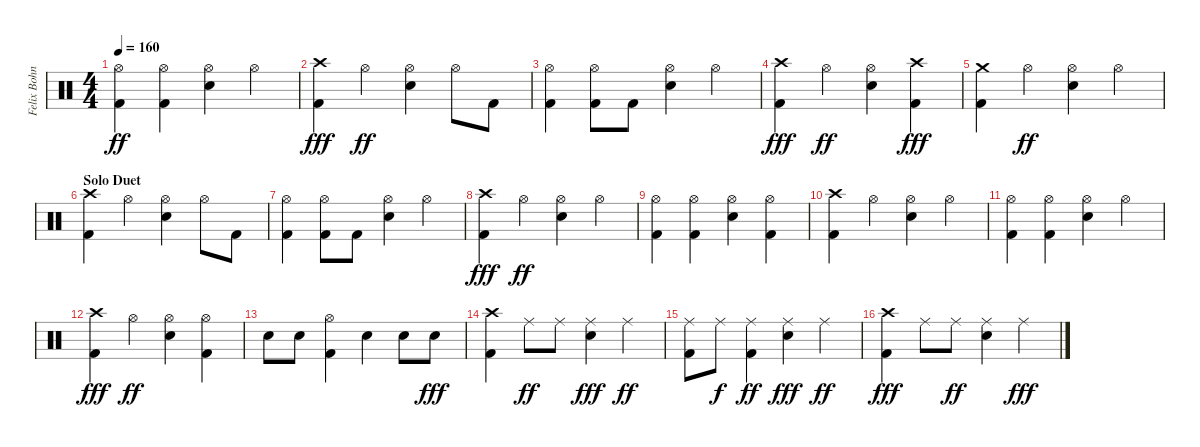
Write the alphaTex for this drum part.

\track ("Felix Bohnke" "Felix Bohn") {instrument percussion}
\staff {score}
\articulation defaults
\ts (4 4)
\tempo 160
\clef neutral
\ks c
("Kick (hit) 2" "Hi-Hat (open)").4{dy ff} ("Kick (hit) 2" "Hi-Hat (open)").4 ("Snare (hit) 2" "Hi-Hat (open)").4 "Hi-Hat (open)".4 |
("Kick (hit) 2" "Crash high (hit)").4{dy fff} "Hi-Hat (open)".4{dy ff} ("Snare (hit) 2" "Hi-Hat (open)").4 "Hi-Hat (open)".8 "Kick (hit) 2".8 |
("Kick (hit) 2" "Hi-Hat (open)").4 ("Kick (hit) 2" "Hi-Hat (open)").8 "Kick (hit) 2".8 ("Snare (hit) 2" "Hi-Hat (open)").4 "Hi-Hat (open)".4 |
("Kick (hit) 2" "Crash high (hit)").4{dy fff} "Hi-Hat (open)".4{dy ff} ("Snare (hit) 2" "Hi-Hat (open)").4 ("Kick (hit) 2" "Crash high (hit)").4{dy fff} |
("Kick (hit) 2" "Crash medium (hit)").4 "Hi-Hat (open)".4{dy ff} ("Snare (hit) 2" "Hi-Hat (open)").4 "Hi-Hat (open)".4 |
\section ("" "Solo Duet")
("Kick (hit) 2" "Crash high (hit)").4 "Hi-Hat (open)".4 ("Snare (hit) 2" "Hi-Hat (open)").4 "Hi-Hat (open)".8 "Kick (hit) 2".8 |
("Kick (hit) 2" "Hi-Hat (open)").4 ("Kick (hit) 2" "Hi-Hat (open)").8 "Kick (hit) 2".8 ("Snare (hit) 2" "Hi-Hat (open)").4 "Hi-Hat (open)".4 |
("Kick (hit) 2" "Crash high (hit)").4{dy fff} "Hi-Hat (open)".4{dy ff} ("Snare (hit) 2" "Hi-Hat (open)").4 "Hi-Hat (open)".4 |
("Kick (hit) 2" "Hi-Hat (open)").4 ("Kick (hit) 2" "Hi-Hat (open)").4 ("Snare (hit) 2" "Hi-Hat (open)").4 ("Kick (hit) 2" "Hi-Hat (open)").4 |
("Kick (hit) 2" "Crash high (hit)").4 "Hi-Hat (open)".4 ("Snare (hit) 2" "Hi-Hat (open)").4 "Hi-Hat (open)".4 |
("Kick (hit) 2" "Hi-Hat (open)").4 ("Kick (hit) 2" "Hi-Hat (open)").4 ("Snare (hit) 2" "Hi-Hat (open)").4 "Hi-Hat (open)".4 |
("Kick (hit) 2" "Crash high (hit)").4{dy fff} "Hi-Hat (open)".4{dy ff} ("Snare (hit) 2" "Hi-Hat (open)").4 ("Kick (hit) 2" "Hi-Hat (open)").4 |
"Snare (hit) 2".8 "Snare (hit) 2".8 ("Kick (hit) 2" "Hi-Hat (open)").4 "Snare (hit) 2".4 "Snare (hit) 2".8 "Snare (hit) 2".8{dy fff} |
("Kick (hit) 2" "Crash high (hit)").4 "Ride (middle)".8{dy ff} "Ride (middle)".8 ("Snare (hit) 2" "Ride (middle)").4{dy fff} "Ride (middle)".4{dy ff} |
("Kick (hit) 2" "Ride (middle)").8 "Ride (middle)".8{dy f} ("Kick (hit) 2" "Ride (middle)").4{dy ff} ("Snare (hit) 2" "Ride (middle)").4{dy fff} "Ride (middle)".4{dy ff} |
("Kick (hit) 2" "Crash high (hit)").4{dy fff} "Ride (middle)".8 "Ride (middle)".8{dy ff} ("Snare (hit) 2" "Ride (middle)").4 "Ride (middle)".4{dy fff}
